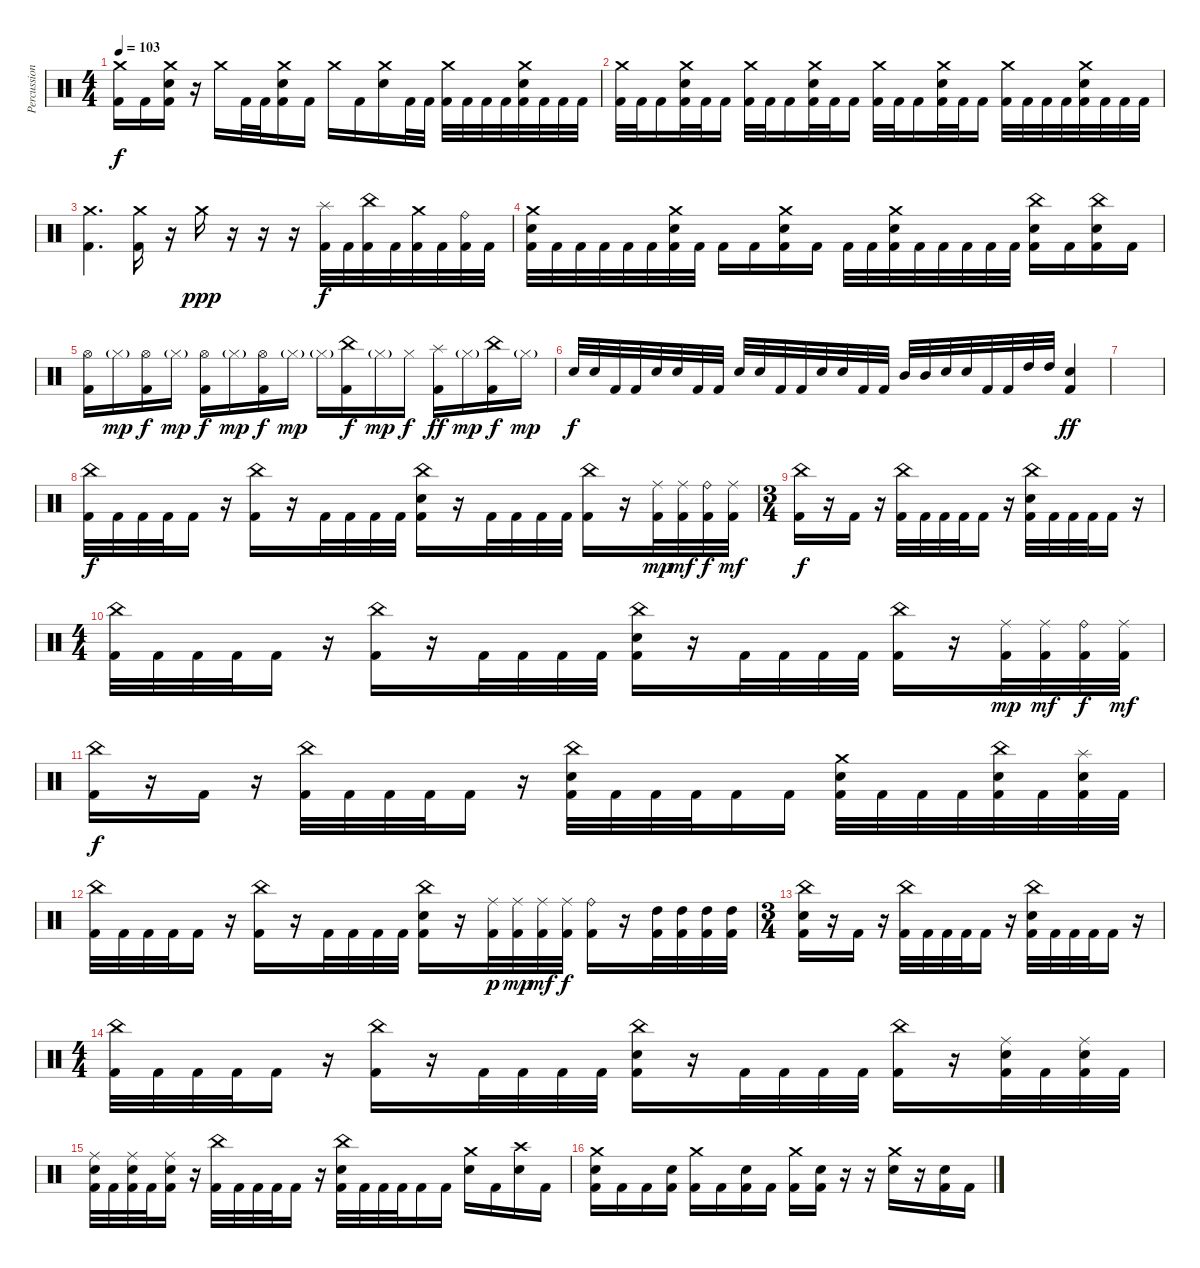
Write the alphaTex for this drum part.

\track ("Percussion" "Percussion") {instrument percussion}
\staff {score}
\articulation defaults
\ts (4 4)
\tempo 103
\clef neutral
\ks c
("Crash medium (hit)" "Kick (hit) 2").16{dy f} "Kick (hit) 2".16 ("Crash medium (hit)" "Electric Snare (hit)" "Kick (hit) 2").16 r.16 "Crash medium (hit)".16 "Kick (hit) 2".32 "Kick (hit) 2".32 ("Crash medium (hit)" "Electric Snare (hit)" "Kick (hit) 2").16 "Kick (hit) 2".16 "Crash medium (hit)".16 "Kick (hit) 2".16 ("Crash medium (hit)" "Electric Snare (hit)").16 "Kick (hit) 2".32 "Kick (hit) 2".32 ("Crash medium (hit)" "Kick (hit) 2").32 "Kick (hit) 2".32 "Kick (hit) 2".32 "Kick (hit) 2".32 ("Crash medium (hit)" "Electric Snare (hit)" "Kick (hit) 2").32 "Kick (hit) 2".32 "Kick (hit) 2".32 "Kick (hit) 2".32 |
("Crash medium (hit)" "Kick (hit) 2").32 "Kick (hit) 2".32 "Kick (hit) 2".16 ("Crash medium (hit)" "Electric Snare (hit)" "Kick (hit) 2").32 "Kick (hit) 2".32 "Kick (hit) 2".16 ("Crash medium (hit)" "Kick (hit) 2").32 "Kick (hit) 2".32 "Kick (hit) 2".16 ("Crash medium (hit)" "Electric Snare (hit)" "Kick (hit) 2").32 "Kick (hit) 2".32 "Kick (hit) 2".16 ("Crash medium (hit)" "Kick (hit) 2").32 "Kick (hit) 2".32 "Kick (hit) 2".16 ("Crash medium (hit)" "Electric Snare (hit)" "Kick (hit) 2").32 "Kick (hit) 2".32 "Kick (hit) 2".16 ("Crash medium (hit)" "Kick (hit) 2").32 "Kick (hit) 2".32 "Kick (hit) 2".32 "Kick (hit) 2".32 ("Crash medium (hit)" "Electric Snare (hit)" "Kick (hit) 2").32 "Kick (hit) 2".32 "Kick (hit) 2".32 "Kick (hit) 2".32 |
("Crash medium (hit)" "Kick (hit) 2").4{d} ("Crash medium (hit)" "Kick (hit) 2").16 r.16 "Crash medium (hit)".16{dy ppp} r.16 r.16 r.16 ("Splash (hit)" "Kick (hit) 2").32{dy f} "Kick (hit) 2".32 ("China (hit)" "Kick (hit) 2").32 "Kick (hit) 2".32 ("Crash medium (hit)" "Kick (hit) 2").32 "Kick (hit) 2".32 ("Ride (bell)" "Kick (hit) 2").32 "Kick (hit) 2".32 |
("Crash medium (hit)" "Electric Snare (hit)" "Kick (hit) 2").32 "Kick (hit) 2".32 "Kick (hit) 2".32 "Kick (hit) 2".32 "Kick (hit) 2".32 "Kick (hit) 2".32 ("Crash medium (hit)" "Electric Snare (hit)" "Kick (hit) 2").32 "Kick (hit) 2".32 "Kick (hit) 2".16 "Kick (hit) 2".16 ("Crash medium (hit)" "Electric Snare (hit)" "Kick (hit) 2").16 "Kick (hit) 2".16 "Kick (hit) 2".32 "Kick (hit) 2".32 ("Crash medium (hit)" "Electric Snare (hit)" "Kick (hit) 2").32 "Kick (hit) 2".32 "Kick (hit) 2".32 "Kick (hit) 2".32 "Kick (hit) 2".32 "Kick (hit) 2".32 ("China (hit)" "Electric Snare (hit)" "Kick (hit) 2").16 "Kick (hit) 2".16 ("China (hit)" "Electric Snare (hit)" "Kick (hit) 2").16 "Kick (hit) 2".16 |
("Hi-Hat (open)" "Kick (hit) 2").16 "Hi-Hat (closed)"{g}.16{dy mp} ("Hi-Hat (open)" "Kick (hit) 2").16{dy f} "Hi-Hat (closed)"{g}.16{dy mp} ("Hi-Hat (open)" "Kick (hit) 2").16{dy f} "Hi-Hat (closed)"{g}.16{dy mp} ("Hi-Hat (open)" "Kick (hit) 2").16{dy f} "Hi-Hat (closed)"{g}.16{dy mp} "Hi-Hat (closed)"{g}.16 ("China (hit)" "Kick (hit) 2").16{dy f} "Hi-Hat (closed)"{g}.16{dy mp} "Hi-Hat (closed)".16{dy f} ("Splash (hit)" "Kick (hit) 2").16{dy ff} "Hi-Hat (closed)"{g}.16{dy mp} ("China (hit)" "Kick (hit) 2").16{dy f} "Hi-Hat (closed)"{g}.16{dy mp} |
"Electric Snare (hit)".32{dy f} "Electric Snare (hit)".32 "Kick (hit) 2".32 "Kick (hit) 2".32 "Electric Snare (hit)".32 "Electric Snare (hit)".32 "Kick (hit) 2".32 "Kick (hit) 2".32 "Electric Snare (hit)".32 "Electric Snare (hit)".32 "Kick (hit) 2".32 "Kick (hit) 2".32 "Electric Snare (hit)".32 "Electric Snare (hit)".32 "Kick (hit) 2".32 "Kick (hit) 2".32 "Mid Tom (hit)".32 "Mid Tom (hit)".32 "Electric Snare (hit)".32 "Electric Snare (hit)".32 "Kick (hit) 2".32 "Kick (hit) 2".32 "High Tom (hit)".32 "High Tom (hit)".32 ("Electric Snare (hit)" "Kick (hit) 2").4{dy ff} |
|
("China (hit)" "Kick (hit) 2").32{dy f} "Kick (hit) 2".32 "Kick (hit) 2".32 "Kick (hit) 2".32 "Kick (hit) 2".16 r.16 ("China (hit)" "Kick (hit) 2").16 r.16 "Kick (hit) 2".32 "Kick (hit) 2".32 "Kick (hit) 2".32 "Kick (hit) 2".32 ("China (hit)" "Electric Snare (hit)" "Kick (hit) 2").16 r.16 "Kick (hit) 2".32 "Kick (hit) 2".32 "Kick (hit) 2".32 "Kick (hit) 2".32 ("China (hit)" "Kick (hit) 2").16 r.16 ("Ride (middle)" "Kick (hit) 2").32{dy mp} ("Ride (middle)" "Kick (hit) 2").32{dy mf} ("Ride (bell)" "Kick (hit) 2").32{dy f} ("Ride (middle)" "Kick (hit) 2").32{dy mf} |
\ts (3 4)
("China (hit)" "Kick (hit) 2").16{dy f} r.16 "Kick (hit) 2".16 r.16 ("China (hit)" "Kick (hit) 2").32 "Kick (hit) 2".32 "Kick (hit) 2".32 "Kick (hit) 2".32 "Kick (hit) 2".16 r.16 ("China (hit)" "Electric Snare (hit)" "Kick (hit) 2").32 "Kick (hit) 2".32 "Kick (hit) 2".32 "Kick (hit) 2".32 "Kick (hit) 2".16 r.16 |
\ts (4 4)
("China (hit)" "Kick (hit) 2").32 "Kick (hit) 2".32 "Kick (hit) 2".32 "Kick (hit) 2".32 "Kick (hit) 2".16 r.16 ("China (hit)" "Kick (hit) 2").16 r.16 "Kick (hit) 2".32 "Kick (hit) 2".32 "Kick (hit) 2".32 "Kick (hit) 2".32 ("China (hit)" "Electric Snare (hit)" "Kick (hit) 2").16 r.16 "Kick (hit) 2".32 "Kick (hit) 2".32 "Kick (hit) 2".32 "Kick (hit) 2".32 ("China (hit)" "Kick (hit) 2").16 r.16 ("Ride (middle)" "Kick (hit) 2").32{dy mp} ("Ride (middle)" "Kick (hit) 2").32{dy mf} ("Ride (bell)" "Kick (hit) 2").32{dy f} ("Ride (middle)" "Kick (hit) 2").32{dy mf} |
("China (hit)" "Kick (hit) 2").16{dy f} r.16 "Kick (hit) 2".16 r.16 ("China (hit)" "Kick (hit) 2").32 "Kick (hit) 2".32 "Kick (hit) 2".32 "Kick (hit) 2".32 "Kick (hit) 2".16 r.16 ("China (hit)" "Electric Snare (hit)" "Kick (hit) 2").32 "Kick (hit) 2".32 "Kick (hit) 2".32 "Kick (hit) 2".32 "Kick (hit) 2".16 "Kick (hit) 2".16 ("Crash medium (hit)" "Electric Snare (hit)" "Kick (hit) 2").32 "Kick (hit) 2".32 "Kick (hit) 2".32 "Kick (hit) 2".32 ("China (hit)" "Electric Snare (hit)" "Kick (hit) 2").32 "Kick (hit) 2".32 ("Splash (hit)" "Electric Snare (hit)" "Kick (hit) 2").32 "Kick (hit) 2".32 |
("China (hit)" "Kick (hit) 2").32 "Kick (hit) 2".32 "Kick (hit) 2".32 "Kick (hit) 2".32 "Kick (hit) 2".16 r.16 ("China (hit)" "Kick (hit) 2").16 r.16 "Kick (hit) 2".32 "Kick (hit) 2".32 "Kick (hit) 2".32 "Kick (hit) 2".32 ("China (hit)" "Electric Snare (hit)" "Kick (hit) 2").16 r.16 ("Ride (middle)" "Kick (hit) 2").32{dy p} ("Ride (middle)" "Kick (hit) 2").32{dy mp} ("Ride (middle)" "Kick (hit) 2").32{dy mf} ("Ride (middle)" "Kick (hit) 2").32{dy f} ("Ride (bell)" "Kick (hit) 2").16 r.16 ("High Tom (hit)" "Kick (hit) 2").32 ("High Tom (hit)" "Kick (hit) 2").32 ("High Tom (hit)" "Kick (hit) 2").32 ("High Tom (hit)" "Kick (hit) 2").32 |
\ts (3 4)
("China (hit)" "Electric Snare (hit)" "Kick (hit) 2").16 r.16 "Kick (hit) 2".16 r.16 ("China (hit)" "Kick (hit) 2").32 "Kick (hit) 2".32 "Kick (hit) 2".32 "Kick (hit) 2".32 "Kick (hit) 2".16 r.16 ("China (hit)" "Electric Snare (hit)" "Kick (hit) 2").32 "Kick (hit) 2".32 "Kick (hit) 2".32 "Kick (hit) 2".32 "Kick (hit) 2".16 r.16 |
\ts (4 4)
("China (hit)" "Kick (hit) 2").32 "Kick (hit) 2".32 "Kick (hit) 2".32 "Kick (hit) 2".32 "Kick (hit) 2".16 r.16 ("China (hit)" "Kick (hit) 2").16 r.16 "Kick (hit) 2".32 "Kick (hit) 2".32 "Kick (hit) 2".32 "Kick (hit) 2".32 ("China (hit)" "Electric Snare (hit)" "Kick (hit) 2").16 r.16 "Kick (hit) 2".32 "Kick (hit) 2".32 "Kick (hit) 2".32 "Kick (hit) 2".32 ("China (hit)" "Kick (hit) 2").16 r.16 ("Ride (middle)" "Electric Snare (hit)" "Kick (hit) 2").32 "Kick (hit) 2".32 ("Ride (middle)" "Electric Snare (hit)" "Kick (hit) 2").32 "Kick (hit) 2".32 |
("Ride (middle)" "Electric Snare (hit)" "Kick (hit) 2").32 "Kick (hit) 2".32 ("Ride (middle)" "Electric Snare (hit)" "Kick (hit) 2").32 "Kick (hit) 2".32 ("Ride (middle)" "Electric Snare (hit)" "Kick (hit) 2").16 r.16 ("China (hit)" "Kick (hit) 2").32 "Kick (hit) 2".32 "Kick (hit) 2".32 "Kick (hit) 2".32 "Kick (hit) 2".16 r.16 ("China (hit)" "Electric Snare (hit)" "Kick (hit) 2").32 "Kick (hit) 2".32 "Kick (hit) 2".32 "Kick (hit) 2".32 "Kick (hit) 2".16 "Kick (hit) 2".16 ("Crash medium (hit)" "Electric Snare (hit)").16 "Kick (hit) 2".16 ("Crash high (hit)" "Electric Snare (hit)").16 "Kick (hit) 2".16 |
("Crash medium (hit)" "Electric Snare (hit)" "Kick (hit) 2").16 "Kick (hit) 2".16 "Kick (hit) 2".16 ("Electric Snare (hit)" "Kick (hit) 2").16 ("Crash medium (hit)" "Kick (hit) 2").16 "Kick (hit) 2".16 ("Electric Snare (hit)" "Kick (hit) 2").16 "Kick (hit) 2".16 ("Crash medium (hit)" "Kick (hit) 2").16 ("Electric Snare (hit)" "Kick (hit) 2").16 r.16 r.16 ("Crash medium (hit)" "Electric Snare (hit)").16 r.16 ("Electric Snare (hit)" "Kick (hit) 2").16 "Kick (hit) 2".16
